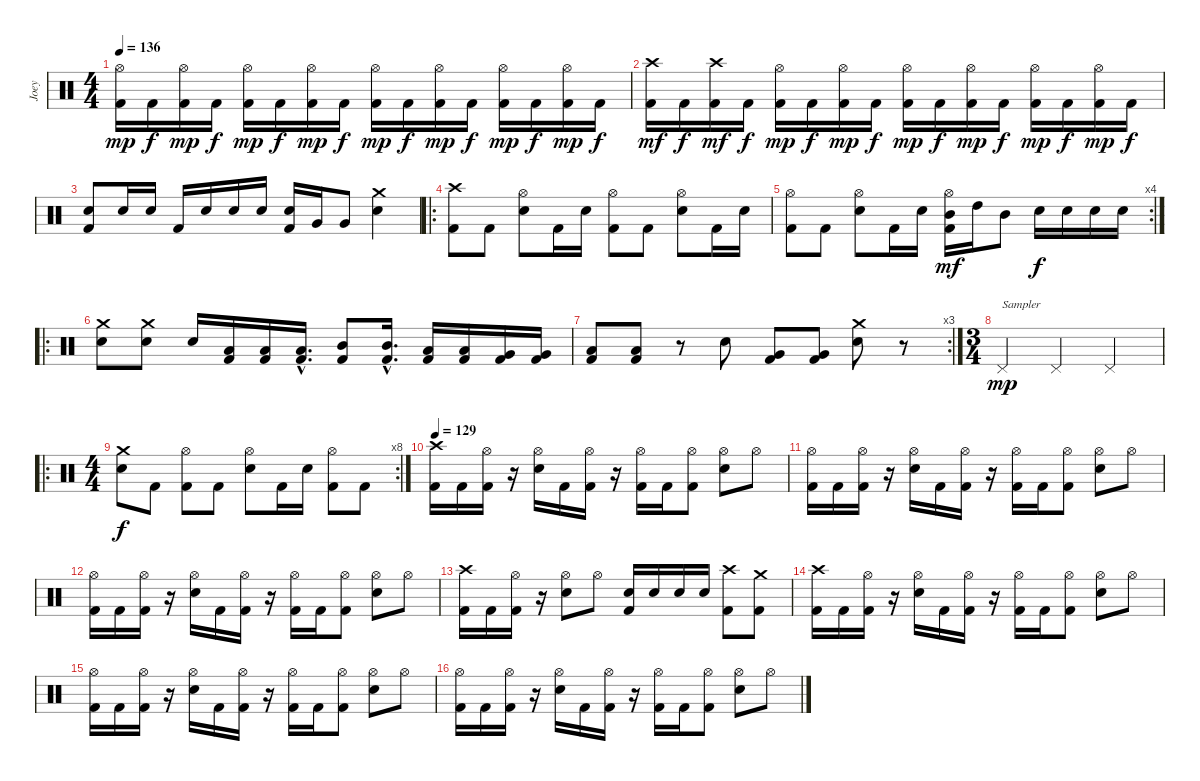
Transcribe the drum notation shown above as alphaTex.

\track ("Joey" "Joey") {instrument percussion}
\staff {score}
\articulation defaults
\ts (4 4)
\tempo 136
\clef neutral
\ks c
("Hi-Hat (open)" "Kick (hit) 2").16{dy mp} "Kick (hit) 2".16{dy f} ("Hi-Hat (open)" "Kick (hit) 2").16{dy mp} "Kick (hit) 2".16{dy f} ("Hi-Hat (open)" "Kick (hit) 2").16{dy mp} "Kick (hit) 2".16{dy f} ("Hi-Hat (open)" "Kick (hit) 2").16{dy mp} "Kick (hit) 2".16{dy f} ("Hi-Hat (open)" "Kick (hit) 2").16{dy mp} "Kick (hit) 2".16{dy f} ("Hi-Hat (open)" "Kick (hit) 2").16{dy mp} "Kick (hit) 2".16{dy f} ("Hi-Hat (open)" "Kick (hit) 2").16{dy mp} "Kick (hit) 2".16{dy f} ("Hi-Hat (open)" "Kick (hit) 2").16{dy mp} "Kick (hit) 2".16{dy f} |
("Crash high (hit)" "Kick (hit) 2").16{dy mf} "Kick (hit) 2".16{dy f} ("Crash high (hit)" "Kick (hit) 2").16{dy mf} "Kick (hit) 2".16{dy f} ("Hi-Hat (open)" "Kick (hit) 2").16{dy mp} "Kick (hit) 2".16{dy f} ("Hi-Hat (open)" "Kick (hit) 2").16{dy mp} "Kick (hit) 2".16{dy f} ("Hi-Hat (open)" "Kick (hit) 2").16{dy mp} "Kick (hit) 2".16{dy f} ("Hi-Hat (open)" "Kick (hit) 2").16{dy mp} "Kick (hit) 2".16{dy f} ("Hi-Hat (open)" "Kick (hit) 2").16{dy mp} "Kick (hit) 2".16{dy f} ("Hi-Hat (open)" "Kick (hit) 2").16{dy mp} "Kick (hit) 2".16{dy f} |
("Electric Snare (hit)" "Kick (hit) 2").8 "Electric Snare (hit)".16 "Electric Snare (hit)".16 "Kick (hit) 2".16 "Electric Snare (hit)".16 "Electric Snare (hit)".16 "Electric Snare (hit)".16 ("Electric Snare (hit)" "Kick (hit) 2").16 "Very Low Tom (hit)".16 "Very Low Tom (hit)".8 ("Crash medium (hit)" "Electric Snare (hit)").4 |
\ro
("Crash high (hit)" "Kick (hit) 2").8 "Kick (hit) 2".8 ("Hi-Hat (open)" "Electric Snare (hit)").8 "Kick (hit) 2".16 "Electric Snare (hit)".16 ("Hi-Hat (open)" "Kick (hit) 2").8 "Kick (hit) 2".8 ("Hi-Hat (open)" "Electric Snare (hit)").8 "Kick (hit) 2".16 "Electric Snare (hit)".16 |
\rc 4
("Hi-Hat (open)" "Kick (hit) 2").8 "Kick (hit) 2".8 ("Hi-Hat (open)" "Electric Snare (hit)").8 "Kick (hit) 2".16 "Electric Snare (hit)".16 ("Hi-Hat (open)" "Mid Tom (hit)" "Kick (hit) 2").16{dy mf} "High Tom (hit)".16 "Mid Tom (hit)".8 "Electric Snare (hit)".16{dy f} "Electric Snare (hit)".16 "Electric Snare (hit)".16 "Electric Snare (hit)".16 |
\ro
("Crash medium (hit)" "Electric Snare (hit)").8 ("Crash medium (hit)" "Electric Snare (hit)").8 "Electric Snare (hit)".16 ("Low Tom (hit)" "Kick (hit) 2").16 ("Low Tom (hit)" "Kick (hit) 2").16 ("Low Tom (hit)"{hac} "Kick (hit) 2"{hac}).16{d} ("Mid Tom (hit)" "Kick (hit) 2").8 ("Mid Tom (hit)"{hac} "Kick (hit) 2"{hac}).16{d} ("Low Tom (hit)" "Kick (hit) 2").16 ("Low Tom (hit)" "Kick (hit) 2").16 ("Very Low Tom (hit)" "Kick (hit) 2").16 ("Very Low Tom (hit)" "Kick (hit) 2").16 |
\rc 3
("Low Floor Tom (hit)" "Kick (hit) 2").8 ("Low Floor Tom (hit)" "Kick (hit) 2").8 r.8 "Electric Snare (hit)".8 ("Very Low Tom (hit)" "Kick (hit) 2").8 ("Very Low Tom (hit)" "Kick (hit) 2").8 ("Crash medium (hit)" "Electric Snare (hit)").8 r.8 |
\ts (3 4)
"Pedal Hi-Hat (hit)".4{txt "Sampler" dy mp} "Pedal Hi-Hat (hit)".4 "Pedal Hi-Hat (hit)".4 |
\ro
\rc 8
\ts (4 4)
("Crash medium (hit)" "Electric Snare (hit)").8{dy f} "Kick (hit) 2".8 ("Hi-Hat (open)" "Kick (hit) 2").8 "Kick (hit) 2".8 ("Hi-Hat (open)" "Electric Snare (hit)").8 "Kick (hit) 2".16 "Electric Snare (hit)".16 ("Hi-Hat (open)" "Kick (hit) 2").8 "Kick (hit) 2".8 |
\tempo 129
("Crash high (hit)" "Kick (hit) 2").16 "Kick (hit) 2".16 ("Hi-Hat (open)" "Kick (hit) 2").16 r.16 ("Hi-Hat (open)" "Electric Snare (hit)").16 "Kick (hit) 2".16 ("Hi-Hat (open)" "Kick (hit) 2").16 r.16 ("Hi-Hat (open)" "Kick (hit) 2").16 "Kick (hit) 2".16 ("Hi-Hat (open)" "Kick (hit) 2").8 ("Hi-Hat (open)" "Electric Snare (hit)").8 "Hi-Hat (open)".8 |
("Hi-Hat (open)" "Kick (hit) 2").16 "Kick (hit) 2".16 ("Hi-Hat (open)" "Kick (hit) 2").16 r.16 ("Hi-Hat (open)" "Electric Snare (hit)").16 "Kick (hit) 2".16 ("Hi-Hat (open)" "Kick (hit) 2").16 r.16 ("Hi-Hat (open)" "Kick (hit) 2").16 "Kick (hit) 2".16 ("Hi-Hat (open)" "Kick (hit) 2").8 ("Hi-Hat (open)" "Electric Snare (hit)").8 "Hi-Hat (open)".8 |
("Hi-Hat (open)" "Kick (hit) 2").16 "Kick (hit) 2".16 ("Hi-Hat (open)" "Kick (hit) 2").16 r.16 ("Hi-Hat (open)" "Electric Snare (hit)").16 "Kick (hit) 2".16 ("Hi-Hat (open)" "Kick (hit) 2").16 r.16 ("Hi-Hat (open)" "Kick (hit) 2").16 "Kick (hit) 2".16 ("Hi-Hat (open)" "Kick (hit) 2").8 ("Hi-Hat (open)" "Electric Snare (hit)").8 "Hi-Hat (open)".8 |
("Crash high (hit)" "Kick (hit) 2").16 "Kick (hit) 2".16 ("Hi-Hat (open)" "Kick (hit) 2").16 r.16 ("Hi-Hat (open)" "Electric Snare (hit)").8 "Hi-Hat (open)".8 ("Electric Snare (hit)" "Kick (hit) 2").16 "Electric Snare (hit)".16 "Electric Snare (hit)".16 "Electric Snare (hit)".16 ("Crash high (hit)" "Kick (hit) 2").8 ("Crash medium (hit)" "Kick (hit) 2").8 |
("Crash high (hit)" "Kick (hit) 2").16 "Kick (hit) 2".16 ("Hi-Hat (open)" "Kick (hit) 2").16 r.16 ("Hi-Hat (open)" "Electric Snare (hit)").16 "Kick (hit) 2".16 ("Hi-Hat (open)" "Kick (hit) 2").16 r.16 ("Hi-Hat (open)" "Kick (hit) 2").16 "Kick (hit) 2".16 ("Hi-Hat (open)" "Kick (hit) 2").8 ("Hi-Hat (open)" "Electric Snare (hit)").8 "Hi-Hat (open)".8 |
("Hi-Hat (open)" "Kick (hit) 2").16 "Kick (hit) 2".16 ("Hi-Hat (open)" "Kick (hit) 2").16 r.16 ("Hi-Hat (open)" "Electric Snare (hit)").16 "Kick (hit) 2".16 ("Hi-Hat (open)" "Kick (hit) 2").16 r.16 ("Hi-Hat (open)" "Kick (hit) 2").16 "Kick (hit) 2".16 ("Hi-Hat (open)" "Kick (hit) 2").8 ("Hi-Hat (open)" "Electric Snare (hit)").8 "Hi-Hat (open)".8 |
("Hi-Hat (open)" "Kick (hit) 2").16 "Kick (hit) 2".16 ("Hi-Hat (open)" "Kick (hit) 2").16 r.16 ("Hi-Hat (open)" "Electric Snare (hit)").16 "Kick (hit) 2".16 ("Hi-Hat (open)" "Kick (hit) 2").16 r.16 ("Hi-Hat (open)" "Kick (hit) 2").16 "Kick (hit) 2".16 ("Hi-Hat (open)" "Kick (hit) 2").8 ("Hi-Hat (open)" "Electric Snare (hit)").8 "Hi-Hat (open)".8
